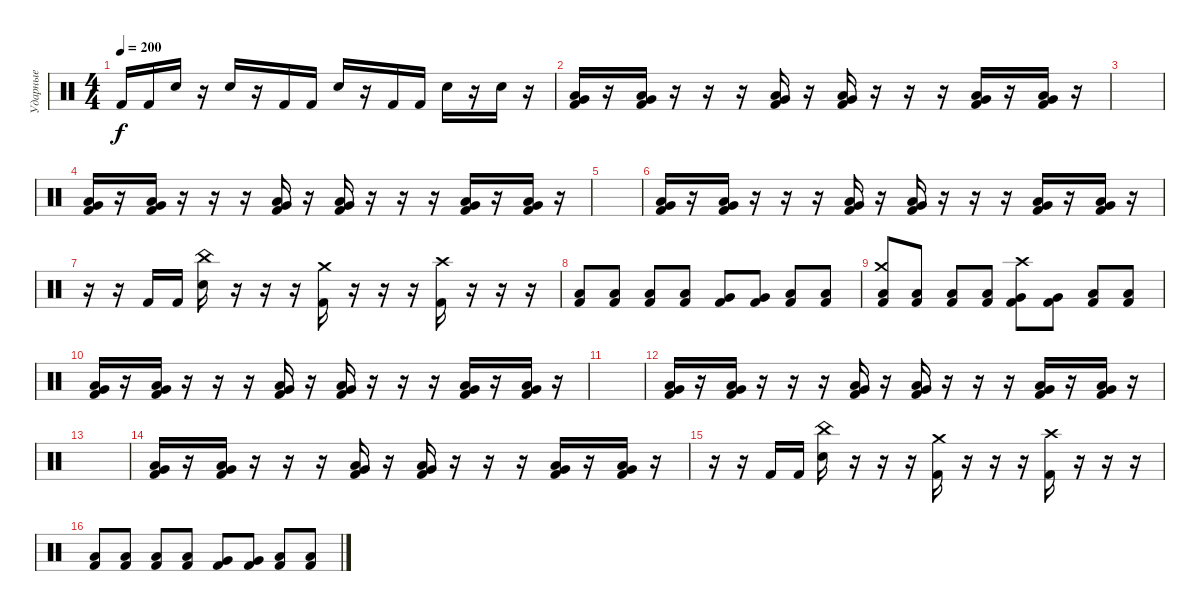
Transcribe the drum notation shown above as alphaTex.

\track ("Ударные" "Ударные") {instrument percussion}
\staff {score}
\articulation defaults
\ts (4 4)
\tempo 200
\clef neutral
\ks c "Kick (hit) 2".16{dy f} "Kick (hit) 2".16 "Electric Snare (hit)".16
r.16 "Electric Snare (hit)".16 r.16 "Kick (hit) 2".16 "Kick (hit) 2".16 "Electric Snare (hit)".16 r.16 "Kick (hit) 2".16 "Kick (hit) 2".16 "Electric Snare (hit)".16 r.16 "Electric Snare (hit)".16 r.16 |
("Kick (hit) 2" "Low Floor Tom (hit)" "Very Low Tom (hit)").16 r.16 ("Kick (hit) 2" "Low Floor Tom (hit)" "Very Low Tom (hit)").16 r.16 r.16 r.16 ("Kick (hit) 2" "Low Floor Tom (hit)" "Very Low Tom (hit)").16 r.16 ("Kick (hit) 2" "Low Floor Tom (hit)" "Very Low Tom (hit)").16 r.16 r.16 r.16 ("Kick (hit) 2" "Low Floor Tom (hit)" "Very Low Tom (hit)").16 r.16 ("Kick (hit) 2" "Low Floor Tom (hit)" "Very Low Tom (hit)").16 r.16 |
|
("Kick (hit) 2" "Low Floor Tom (hit)" "Very Low Tom (hit)").16 r.16 ("Kick (hit) 2" "Low Floor Tom (hit)" "Very Low Tom (hit)").16 r.16 r.16 r.16 ("Kick (hit) 2" "Low Floor Tom (hit)" "Very Low Tom (hit)").16 r.16 ("Kick (hit) 2" "Low Floor Tom (hit)" "Very Low Tom (hit)").16 r.16 r.16 r.16 ("Kick (hit) 2" "Low Floor Tom (hit)" "Very Low Tom (hit)").16 r.16 ("Kick (hit) 2" "Low Floor Tom (hit)" "Very Low Tom (hit)").16 r.16 |
|
("Kick (hit) 2" "Low Floor Tom (hit)" "Very Low Tom (hit)").16 r.16 ("Kick (hit) 2" "Low Floor Tom (hit)" "Very Low Tom (hit)").16 r.16 r.16 r.16 ("Kick (hit) 2" "Low Floor Tom (hit)" "Very Low Tom (hit)").16 r.16 ("Kick (hit) 2" "Low Floor Tom (hit)" "Very Low Tom (hit)").16 r.16 r.16 r.16 ("Kick (hit) 2" "Low Floor Tom (hit)" "Very Low Tom (hit)").16 r.16 ("Kick (hit) 2" "Low Floor Tom (hit)" "Very Low Tom (hit)").16 r.16 |
r.16 r.16 "Kick (hit) 2".16 "Kick (hit) 2".16 ("Electric Snare (hit)" "China (hit)").16 r.16 r.16 r.16 ("Kick (hit) 2" "Crash medium (hit)").16 r.16 r.16 r.16 ("Kick (hit) 2" "Crash high (hit)").16 r.16 r.16 r.16 |
("Kick (hit) 2" "Low Tom (hit)").8 ("Kick (hit) 2" "Low Tom (hit)").8 ("Kick (hit) 2" "Low Tom (hit)").8 ("Kick (hit) 2" "Low Tom (hit)").8 ("Kick (hit) 2" "Very Low Tom (hit)").8 ("Kick (hit) 2" "Very Low Tom (hit)").8 ("Kick (hit) 2" "Low Floor Tom (hit)").8 ("Kick (hit) 2" "Low Floor Tom (hit)").8 |
("Kick (hit) 2" "Low Tom (hit)" "Crash medium (hit)").8 ("Kick (hit) 2" "Low Tom (hit)").8 ("Kick (hit) 2" "Low Tom (hit)").8 ("Kick (hit) 2" "Low Tom (hit)").8 ("Kick (hit) 2" "Very Low Tom (hit)" "Crash high (hit)").8 ("Kick (hit) 2" "Very Low Tom (hit)").8 ("Kick (hit) 2" "Low Floor Tom (hit)").8 ("Kick (hit) 2" "Low Floor Tom (hit)").8 |
("Kick (hit) 2" "Low Floor Tom (hit)" "Very Low Tom (hit)").16 r.16 ("Kick (hit) 2" "Low Floor Tom (hit)" "Very Low Tom (hit)").16 r.16 r.16 r.16 ("Kick (hit) 2" "Low Floor Tom (hit)" "Very Low Tom (hit)").16 r.16 ("Kick (hit) 2" "Low Floor Tom (hit)" "Very Low Tom (hit)").16 r.16 r.16 r.16 ("Kick (hit) 2" "Low Floor Tom (hit)" "Very Low Tom (hit)").16 r.16 ("Kick (hit) 2" "Low Floor Tom (hit)" "Very Low Tom (hit)").16 r.16 |
|
("Kick (hit) 2" "Low Floor Tom (hit)" "Very Low Tom (hit)").16 r.16 ("Kick (hit) 2" "Low Floor Tom (hit)" "Very Low Tom (hit)").16 r.16 r.16 r.16 ("Kick (hit) 2" "Low Floor Tom (hit)" "Very Low Tom (hit)").16 r.16 ("Kick (hit) 2" "Low Floor Tom (hit)" "Very Low Tom (hit)").16 r.16 r.16 r.16 ("Kick (hit) 2" "Low Floor Tom (hit)" "Very Low Tom (hit)").16 r.16 ("Kick (hit) 2" "Low Floor Tom (hit)" "Very Low Tom (hit)").16 r.16 |
|
("Kick (hit) 2" "Low Floor Tom (hit)" "Very Low Tom (hit)").16 r.16 ("Kick (hit) 2" "Low Floor Tom (hit)" "Very Low Tom (hit)").16 r.16 r.16 r.16 ("Kick (hit) 2" "Low Floor Tom (hit)" "Very Low Tom (hit)").16 r.16 ("Kick (hit) 2" "Low Floor Tom (hit)" "Very Low Tom (hit)").16 r.16 r.16 r.16 ("Kick (hit) 2" "Low Floor Tom (hit)" "Very Low Tom (hit)").16 r.16 ("Kick (hit) 2" "Low Floor Tom (hit)" "Very Low Tom (hit)").16 r.16 |
r.16 r.16 "Kick (hit) 2".16 "Kick (hit) 2".16 ("Electric Snare (hit)" "China (hit)").16 r.16 r.16 r.16 ("Kick (hit) 2" "Crash medium (hit)").16 r.16 r.16 r.16 ("Kick (hit) 2" "Crash high (hit)").16 r.16 r.16 r.16 |
("Kick (hit) 2" "Low Tom (hit)").8 ("Kick (hit) 2" "Low Tom (hit)").8 ("Kick (hit) 2" "Low Tom (hit)").8 ("Kick (hit) 2" "Low Tom (hit)").8 ("Kick (hit) 2" "Very Low Tom (hit)").8 ("Kick (hit) 2" "Very Low Tom (hit)").8 ("Kick (hit) 2" "Low Floor Tom (hit)").8 ("Kick (hit) 2" "Low Floor Tom (hit)").8
